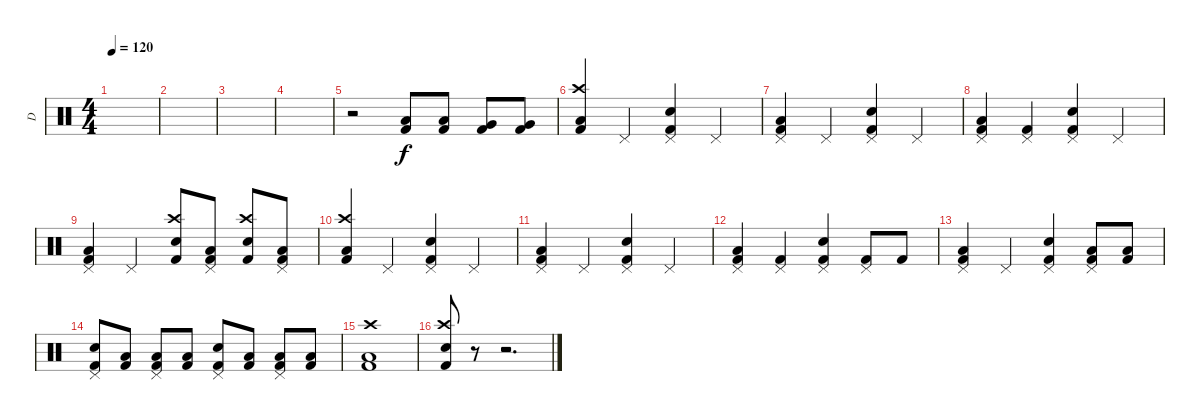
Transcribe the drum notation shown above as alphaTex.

\track ("D" "D") {instrument percussion}
\staff {score}
\articulation defaults
\ts (4 4)
\tempo 120
\clef neutral
\ks c
|
|
|
|
r.2 ("Low Tom (hit)" "Kick (hit) 2").8 ("Low Tom (hit)" "Kick (hit) 2").8 ("Very Low Tom (hit)" "Kick (hit) 2").8 ("Very Low Tom (hit)" "Kick (hit) 2").8 |
("Crash high (hit)" "Low Floor Tom (hit)" "Kick (hit) 2").4 "Pedal Hi-Hat (hit)".4 ("Pedal Hi-Hat (hit)" "Snare (hit) 2" "Kick (hit) 2").4 "Pedal Hi-Hat (hit)".4 |
("Pedal Hi-Hat (hit)" "Low Floor Tom (hit)" "Kick (hit) 2").4 "Pedal Hi-Hat (hit)".4 ("Pedal Hi-Hat (hit)" "Snare (hit) 2" "Kick (hit) 2").4 "Pedal Hi-Hat (hit)".4 |
("Pedal Hi-Hat (hit)" "Low Floor Tom (hit)" "Kick (hit) 2").4 ("Pedal Hi-Hat (hit)" "Kick (hit) 2").4 ("Pedal Hi-Hat (hit)" "Snare (hit) 2" "Kick (hit) 2").4 "Pedal Hi-Hat (hit)".4 |
("Pedal Hi-Hat (hit)" "Low Floor Tom (hit)" "Kick (hit) 2").4 "Pedal Hi-Hat (hit)".4 ("Crash high (hit)" "Snare (hit) 2" "Kick (hit) 2").8 ("Pedal Hi-Hat (hit)" "Low Floor Tom (hit)" "Kick (hit) 2").8 ("Crash high (hit)" "Snare (hit) 2" "Kick (hit) 2").8 ("Pedal Hi-Hat (hit)" "Low Floor Tom (hit)" "Kick (hit) 2").8 |
("Crash high (hit)" "Low Floor Tom (hit)" "Kick (hit) 2").4 "Pedal Hi-Hat (hit)".4 ("Pedal Hi-Hat (hit)" "Snare (hit) 2" "Kick (hit) 2").4 "Pedal Hi-Hat (hit)".4 |
("Pedal Hi-Hat (hit)" "Low Floor Tom (hit)" "Kick (hit) 2").4 "Pedal Hi-Hat (hit)".4 ("Pedal Hi-Hat (hit)" "Snare (hit) 2" "Kick (hit) 2").4 "Pedal Hi-Hat (hit)".4 |
("Pedal Hi-Hat (hit)" "Low Floor Tom (hit)" "Kick (hit) 2").4 ("Pedal Hi-Hat (hit)" "Kick (hit) 2").4 ("Pedal Hi-Hat (hit)" "Snare (hit) 2" "Kick (hit) 2").4 ("Pedal Hi-Hat (hit)" "Kick (hit) 2").8 "Kick (hit) 2".8 |
("Pedal Hi-Hat (hit)" "Low Floor Tom (hit)" "Kick (hit) 2").4 "Pedal Hi-Hat (hit)".4 ("Pedal Hi-Hat (hit)" "Snare (hit) 2" "Kick (hit) 2").4 ("Pedal Hi-Hat (hit)" "Low Floor Tom (hit)" "Kick (hit) 2").8 ("Low Floor Tom (hit)" "Kick (hit) 2").8 |
("Pedal Hi-Hat (hit)" "Electric Snare (hit)" "Kick (hit) 2").8 ("Low Floor Tom (hit)" "Kick (hit) 2").8 ("Pedal Hi-Hat (hit)" "Low Floor Tom (hit)" "Kick (hit) 2").8 ("Low Floor Tom (hit)" "Kick (hit) 2").8 ("Pedal Hi-Hat (hit)" "Electric Snare (hit)" "Kick (hit) 2").8 ("Low Floor Tom (hit)" "Kick (hit) 2").8 ("Pedal Hi-Hat (hit)" "Low Floor Tom (hit)" "Kick (hit) 2").8 ("Low Floor Tom (hit)" "Kick (hit) 2").8 |
("Crash high (hit)" "Low Floor Tom (hit)" "Kick (hit) 2").1 |
("Crash high (hit)" "Snare (hit) 2" "Kick (hit) 2").8 r.8 r.2{d}
